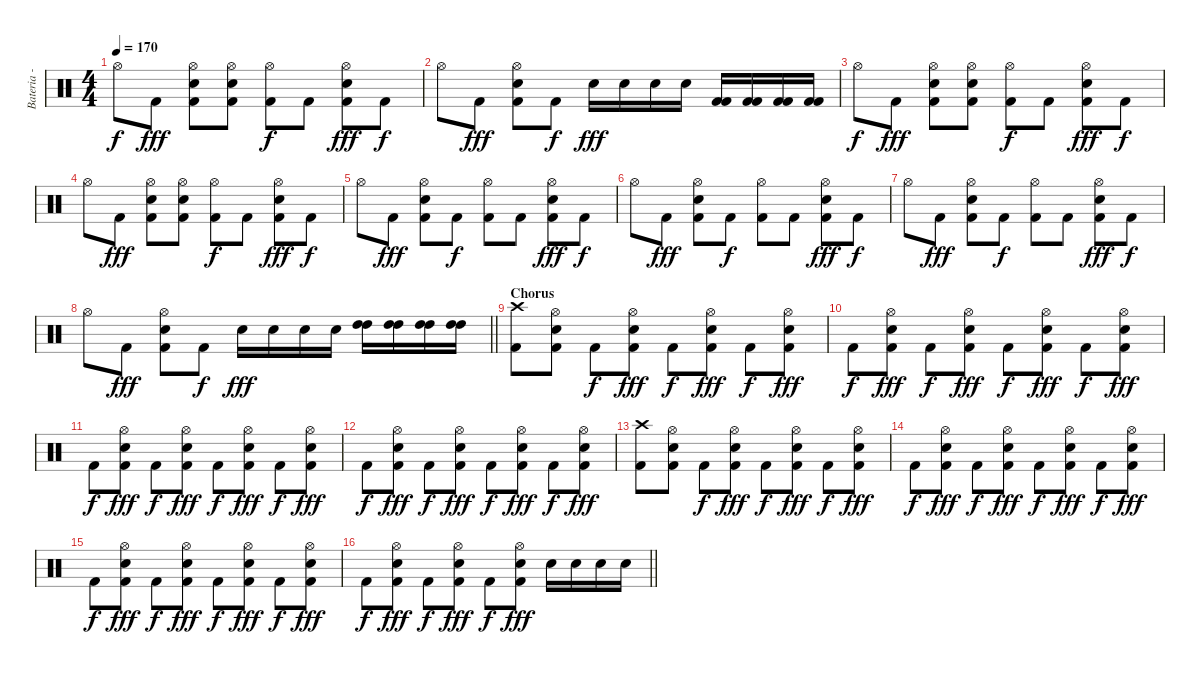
\track ("Bateria - Larzon" "Bateria - ") {instrument percussion}
\staff {score}
\articulation defaults
\ts (4 4)
\tempo 170
\clef neutral
\ks c "Hi-Hat (open)".8{dy f} "Kick (hit) 2".8{dy fff}
("Kick (hit) 2" "Hi-Hat (open)" "Snare (hit) 2").8 ("Kick (hit) 2" "Hi-Hat (open)" "Snare (hit) 2").8 ("Kick (hit) 2" "Hi-Hat (open)").8{dy f} "Kick (hit) 2".8 ("Kick (hit) 2" "Hi-Hat (open)" "Snare (hit) 2").8{dy fff} "Kick (hit) 2".8{dy f} |
"Hi-Hat (open)".8 "Kick (hit) 2".8{dy fff} ("Kick (hit) 2" "Hi-Hat (open)" "Snare (hit) 2").8 "Kick (hit) 2".8{dy f} "Snare (hit) 2".16{dy fff} "Snare (hit) 2".16 "Snare (hit) 2".16 "Snare (hit) 2".16 ("Kick (hit) 2" "Kick (hit) 2").16 ("Kick (hit) 2" "Kick (hit) 2").16 ("Kick (hit) 2" "Kick (hit) 2").16 ("Kick (hit) 2" "Kick (hit) 2").16 |
"Hi-Hat (open)".8{dy f} "Kick (hit) 2".8{dy fff} ("Kick (hit) 2" "Hi-Hat (open)" "Snare (hit) 2").8 ("Kick (hit) 2" "Hi-Hat (open)" "Snare (hit) 2").8 ("Kick (hit) 2" "Hi-Hat (open)").8{dy f} "Kick (hit) 2".8 ("Kick (hit) 2" "Hi-Hat (open)" "Snare (hit) 2").8{dy fff} "Kick (hit) 2".8{dy f} |
"Hi-Hat (open)".8 "Kick (hit) 2".8{dy fff} ("Kick (hit) 2" "Hi-Hat (open)" "Snare (hit) 2").8 ("Kick (hit) 2" "Hi-Hat (open)" "Snare (hit) 2").8 ("Kick (hit) 2" "Hi-Hat (open)").8{dy f} "Kick (hit) 2".8 ("Kick (hit) 2" "Hi-Hat (open)" "Snare (hit) 2").8{dy fff} "Kick (hit) 2".8{dy f} |
"Hi-Hat (open)".8 "Kick (hit) 2".8{dy fff} ("Kick (hit) 2" "Hi-Hat (open)" "Snare (hit) 2").8 "Kick (hit) 2".8{dy f} ("Kick (hit) 2" "Hi-Hat (open)").8 "Kick (hit) 2".8 ("Kick (hit) 2" "Hi-Hat (open)" "Snare (hit) 2").8{dy fff} "Kick (hit) 2".8{dy f} |
"Hi-Hat (open)".8 "Kick (hit) 2".8{dy fff} ("Kick (hit) 2" "Hi-Hat (open)" "Snare (hit) 2").8 "Kick (hit) 2".8{dy f} ("Kick (hit) 2" "Hi-Hat (open)").8 "Kick (hit) 2".8 ("Kick (hit) 2" "Hi-Hat (open)" "Snare (hit) 2").8{dy fff} "Kick (hit) 2".8{dy f} |
"Hi-Hat (open)".8 "Kick (hit) 2".8{dy fff} ("Kick (hit) 2" "Hi-Hat (open)" "Snare (hit) 2").8 "Kick (hit) 2".8{dy f} ("Kick (hit) 2" "Hi-Hat (open)").8 "Kick (hit) 2".8 ("Kick (hit) 2" "Hi-Hat (open)" "Snare (hit) 2").8{dy fff} "Kick (hit) 2".8{dy f} |
\barLineRight lightlight "Hi-Hat (open)".8 "Kick (hit) 2".8{dy fff}
("Kick (hit) 2" "Hi-Hat (open)" "Snare (hit) 2").8 "Kick (hit) 2".8{dy f} "Snare (hit) 2".16{dy fff} "Snare (hit) 2".16 "Snare (hit) 2".16 "Snare (hit) 2".16 ("High Tom (hit)" "High Tom (hit)").16 ("High Tom (hit)" "High Tom (hit)").16 ("High Tom (hit)" "High Tom (hit)").16 ("High Tom (hit)" "High Tom (hit)").16 |
\section ("" "Chorus")
("Crash high (hit)" "Kick (hit) 2").8 ("Kick (hit) 2" "Hi-Hat (open)" "Snare (hit) 2").8 "Kick (hit) 2".8{dy f} ("Kick (hit) 2" "Hi-Hat (open)" "Snare (hit) 2").8{dy fff} "Kick (hit) 2".8{dy f} ("Kick (hit) 2" "Hi-Hat (open)" "Snare (hit) 2").8{dy fff} "Kick (hit) 2".8{dy f} ("Kick (hit) 2" "Hi-Hat (open)" "Snare (hit) 2").8{dy fff} |
"Kick (hit) 2".8{dy f} ("Kick (hit) 2" "Hi-Hat (open)" "Snare (hit) 2").8{dy fff} "Kick (hit) 2".8{dy f} ("Kick (hit) 2" "Hi-Hat (open)" "Snare (hit) 2").8{dy fff} "Kick (hit) 2".8{dy f} ("Kick (hit) 2" "Hi-Hat (open)" "Snare (hit) 2").8{dy fff} "Kick (hit) 2".8{dy f} ("Kick (hit) 2" "Hi-Hat (open)" "Snare (hit) 2").8{dy fff} |
"Kick (hit) 2".8{dy f} ("Kick (hit) 2" "Hi-Hat (open)" "Snare (hit) 2").8{dy fff} "Kick (hit) 2".8{dy f} ("Kick (hit) 2" "Hi-Hat (open)" "Snare (hit) 2").8{dy fff} "Kick (hit) 2".8{dy f} ("Kick (hit) 2" "Hi-Hat (open)" "Snare (hit) 2").8{dy fff} "Kick (hit) 2".8{dy f} ("Kick (hit) 2" "Hi-Hat (open)" "Snare (hit) 2").8{dy fff} |
"Kick (hit) 2".8{dy f} ("Kick (hit) 2" "Hi-Hat (open)" "Snare (hit) 2").8{dy fff} "Kick (hit) 2".8{dy f} ("Kick (hit) 2" "Hi-Hat (open)" "Snare (hit) 2").8{dy fff} "Kick (hit) 2".8{dy f} ("Kick (hit) 2" "Hi-Hat (open)" "Snare (hit) 2").8{dy fff} "Kick (hit) 2".8{dy f} ("Kick (hit) 2" "Hi-Hat (open)" "Snare (hit) 2").8{dy fff} |
("Crash high (hit)" "Kick (hit) 2").8 ("Kick (hit) 2" "Hi-Hat (open)" "Snare (hit) 2").8 "Kick (hit) 2".8{dy f} ("Kick (hit) 2" "Hi-Hat (open)" "Snare (hit) 2").8{dy fff} "Kick (hit) 2".8{dy f} ("Kick (hit) 2" "Hi-Hat (open)" "Snare (hit) 2").8{dy fff} "Kick (hit) 2".8{dy f} ("Kick (hit) 2" "Hi-Hat (open)" "Snare (hit) 2").8{dy fff} |
"Kick (hit) 2".8{dy f} ("Kick (hit) 2" "Hi-Hat (open)" "Snare (hit) 2").8{dy fff} "Kick (hit) 2".8{dy f} ("Kick (hit) 2" "Hi-Hat (open)" "Snare (hit) 2").8{dy fff} "Kick (hit) 2".8{dy f} ("Kick (hit) 2" "Hi-Hat (open)" "Snare (hit) 2").8{dy fff} "Kick (hit) 2".8{dy f} ("Kick (hit) 2" "Hi-Hat (open)" "Snare (hit) 2").8{dy fff} |
"Kick (hit) 2".8{dy f} ("Kick (hit) 2" "Hi-Hat (open)" "Snare (hit) 2").8{dy fff} "Kick (hit) 2".8{dy f} ("Kick (hit) 2" "Hi-Hat (open)" "Snare (hit) 2").8{dy fff} "Kick (hit) 2".8{dy f} ("Kick (hit) 2" "Hi-Hat (open)" "Snare (hit) 2").8{dy fff} "Kick (hit) 2".8{dy f} ("Kick (hit) 2" "Hi-Hat (open)" "Snare (hit) 2").8{dy fff} |
\barLineRight lightlight "Kick (hit) 2".8{dy f}
("Kick (hit) 2" "Hi-Hat (open)" "Snare (hit) 2").8{dy fff} "Kick (hit) 2".8{dy f} ("Kick (hit) 2" "Hi-Hat (open)" "Snare (hit) 2").8{dy fff} "Kick (hit) 2".8{dy f} ("Kick (hit) 2" "Hi-Hat (open)" "Snare (hit) 2").8{dy fff} "Snare (hit) 2".16 "Snare (hit) 2".16 "Snare (hit) 2".16 "Snare (hit) 2".16
